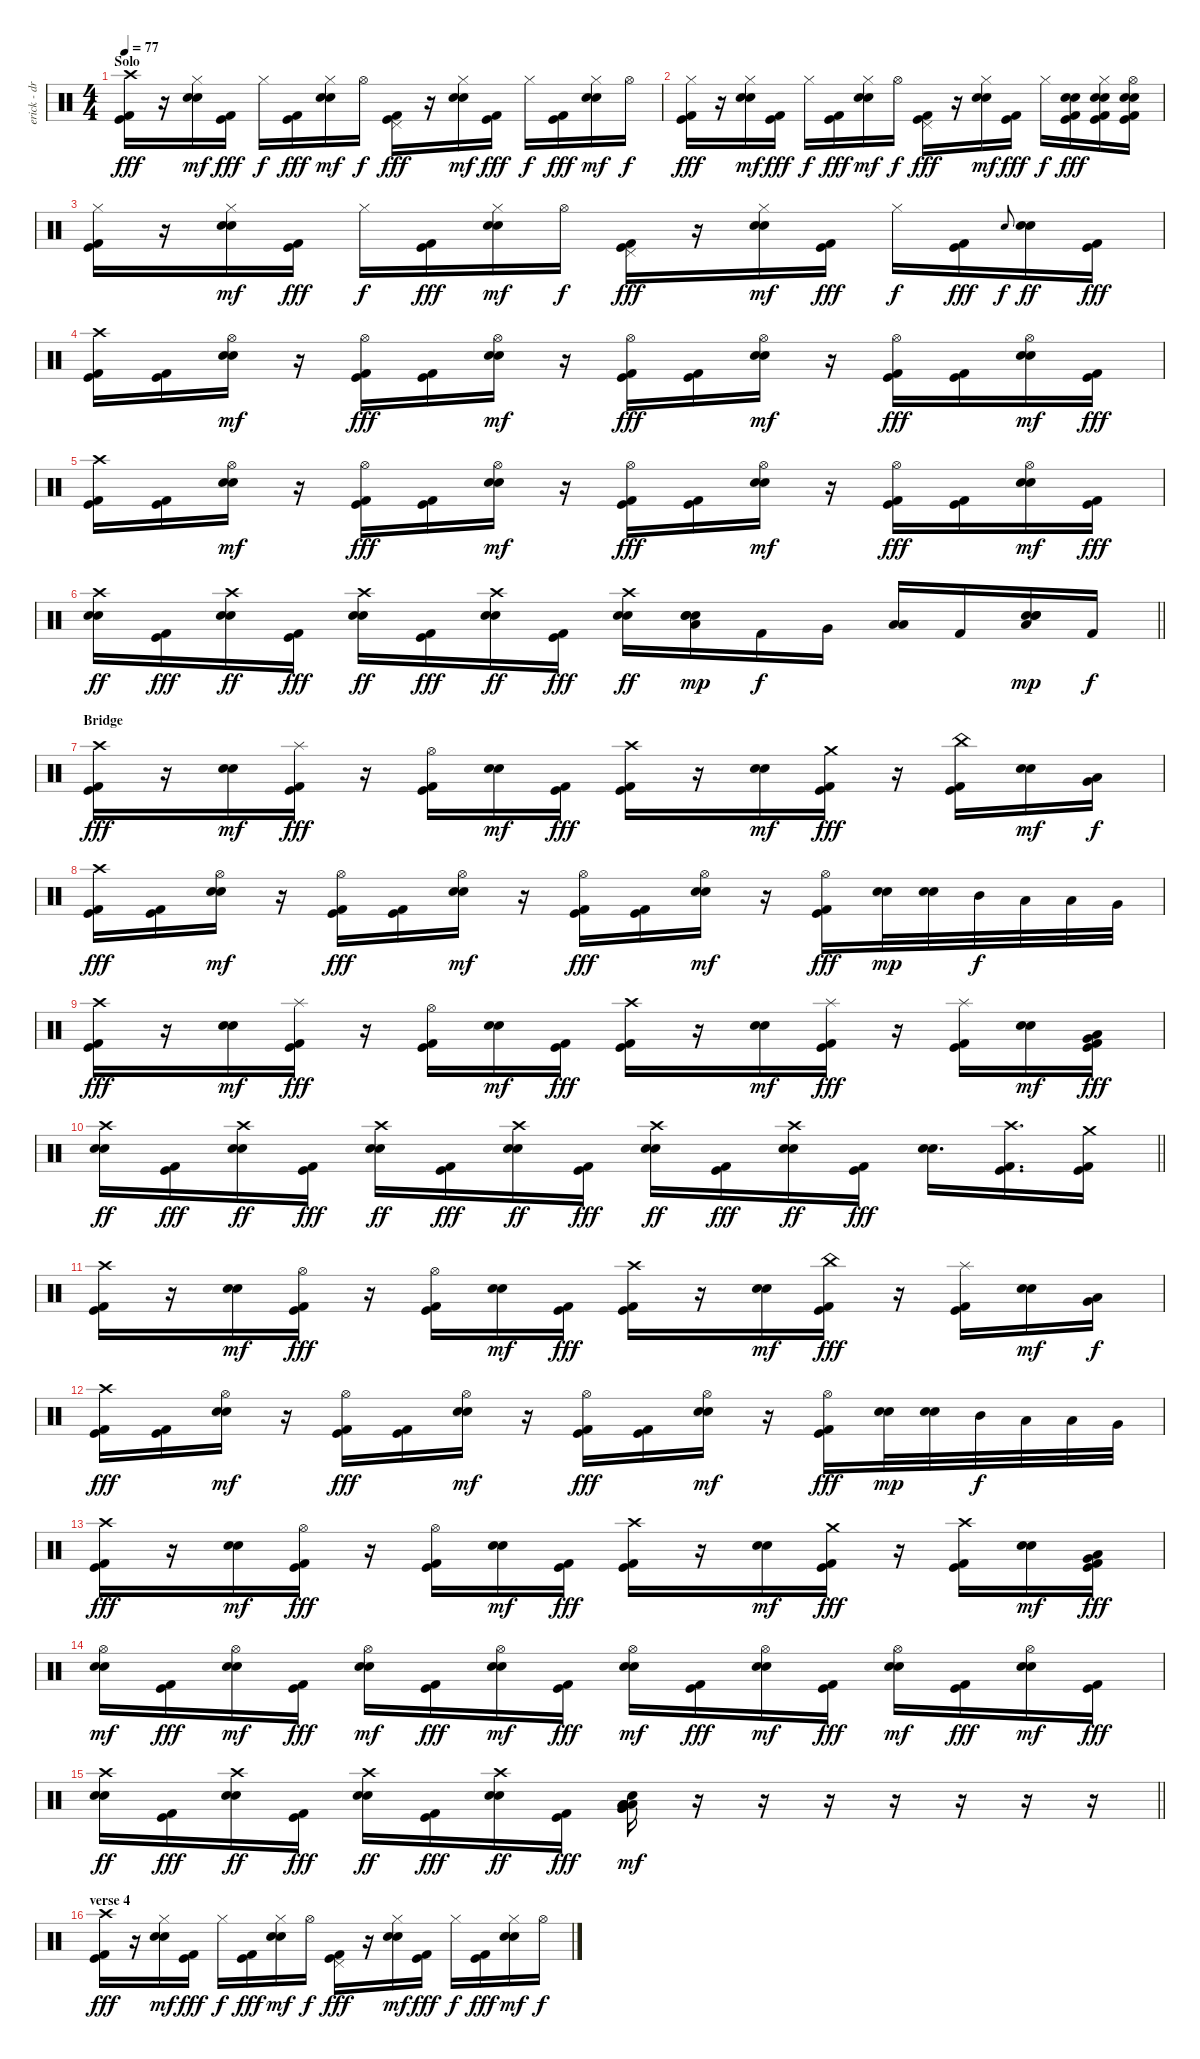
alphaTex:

\track ("erick - drum" "erick - dr") {instrument percussion}
\staff {score}
\articulation defaults
\ts (4 4)
\section ("" "Solo")
\tempo 77
\clef neutral
\ks c
("Crash high (hit)" "Kick (hit) 2" "Kick (hit)").16{dy fff} r.16 ("Hi-Hat (closed)" "Snare (hit) 2" "Electric Snare (hit)").16{dy mf} ("Kick (hit) 2" "Kick (hit)").16{dy fff} "Hi-Hat (closed)".16{dy f} ("Kick (hit) 2" "Kick (hit)").16{dy fff} ("Hi-Hat (closed)" "Snare (hit) 2" "Electric Snare (hit)").16{dy mf} "Hi-Hat (open)".16{dy f} ("Pedal Hi-Hat (hit)" "Kick (hit) 2" "Kick (hit)").16{dy fff} r.16 ("Hi-Hat (closed)" "Snare (hit) 2" "Electric Snare (hit)").16{dy mf} ("Kick (hit) 2" "Kick (hit)").16{dy fff} "Hi-Hat (closed)".16{dy f} ("Kick (hit) 2" "Kick (hit)").16{dy fff} ("Hi-Hat (closed)" "Snare (hit) 2" "Electric Snare (hit)").16{dy mf} "Hi-Hat (open)".16{dy f} |
("Hi-Hat (closed)" "Kick (hit) 2" "Kick (hit)").16{dy fff} r.16 ("Hi-Hat (closed)" "Snare (hit) 2" "Electric Snare (hit)").16{dy mf} ("Kick (hit) 2" "Kick (hit)").16{dy fff} "Hi-Hat (closed)".16{dy f} ("Kick (hit) 2" "Kick (hit)").16{dy fff} ("Hi-Hat (closed)" "Snare (hit) 2" "Electric Snare (hit)").16{dy mf} "Hi-Hat (open)".16{dy f} ("Pedal Hi-Hat (hit)" "Kick (hit) 2" "Kick (hit)").16{dy fff} r.16 ("Hi-Hat (closed)" "Snare (hit) 2" "Electric Snare (hit)").16{dy mf} ("Kick (hit) 2" "Kick (hit)").16{dy fff} "Hi-Hat (closed)".16{dy f} ("Snare (hit) 2" "Electric Snare (hit)" "Kick (hit) 2" "Kick (hit)").16{dy fff} ("Hi-Hat (closed)" "Snare (hit) 2" "Electric Snare (hit)" "Kick (hit) 2" "Kick (hit)").16 ("Hi-Hat (open)" "Snare (hit) 2" "Electric Snare (hit)" "Kick (hit) 2" "Kick (hit)").16 |
("Hi-Hat (closed)" "Kick (hit) 2" "Kick (hit)").16 r.16 ("Hi-Hat (closed)" "Snare (hit) 2" "Electric Snare (hit)").16{dy mf} ("Kick (hit) 2" "Kick (hit)").16{dy fff} "Hi-Hat (closed)".16{dy f} ("Kick (hit) 2" "Kick (hit)").16{dy fff} ("Hi-Hat (closed)" "Snare (hit) 2" "Electric Snare (hit)").16{dy mf} "Hi-Hat (open)".16{dy f} ("Pedal Hi-Hat (hit)" "Kick (hit) 2" "Kick (hit)").16{dy fff} r.16 ("Hi-Hat (closed)" "Snare (hit) 2" "Electric Snare (hit)").16{dy mf} ("Kick (hit) 2" "Kick (hit)").16{dy fff} "Hi-Hat (closed)".16{dy f} ("Kick (hit) 2" "Kick (hit)").16{dy fff} "Electric Snare (hit)"{h}.8{gr onbeat dy f} ("Snare (hit) 2" "Electric Snare (hit)").16{dy ff} ("Kick (hit) 2" "Kick (hit)").16{dy fff} |
("Crash high (hit)" "Kick (hit) 2" "Kick (hit)").16 ("Kick (hit) 2" "Kick (hit)").16 ("Hi-Hat (open)" "Snare (hit) 2" "Electric Snare (hit)").16{dy mf} r.16 ("Hi-Hat (open)" "Kick (hit) 2" "Kick (hit)").16{dy fff} ("Kick (hit) 2" "Kick (hit)").16 ("Hi-Hat (open)" "Snare (hit) 2" "Electric Snare (hit)").16{dy mf} r.16 ("Hi-Hat (open)" "Kick (hit) 2" "Kick (hit)").16{dy fff} ("Kick (hit) 2" "Kick (hit)").16 ("Hi-Hat (open)" "Snare (hit) 2" "Electric Snare (hit)").16{dy mf} r.16 ("Hi-Hat (open)" "Kick (hit) 2" "Kick (hit)").16{dy fff} ("Kick (hit) 2" "Kick (hit)").16 ("Hi-Hat (open)" "Snare (hit) 2" "Electric Snare (hit)").16{dy mf} ("Kick (hit) 2" "Kick (hit)").16{dy fff} |
("Crash high (hit)" "Kick (hit) 2" "Kick (hit)").16 ("Kick (hit) 2" "Kick (hit)").16 ("Hi-Hat (open)" "Snare (hit) 2" "Electric Snare (hit)").16{dy mf} r.16 ("Hi-Hat (open)" "Kick (hit) 2" "Kick (hit)").16{dy fff} ("Kick (hit) 2" "Kick (hit)").16 ("Hi-Hat (open)" "Snare (hit) 2" "Electric Snare (hit)").16{dy mf} r.16 ("Hi-Hat (open)" "Kick (hit) 2" "Kick (hit)").16{dy fff} ("Kick (hit) 2" "Kick (hit)").16 ("Hi-Hat (open)" "Snare (hit) 2" "Electric Snare (hit)").16{dy mf} r.16 ("Hi-Hat (open)" "Kick (hit) 2" "Kick (hit)").16{dy fff} ("Kick (hit) 2" "Kick (hit)").16 ("Hi-Hat (open)" "Snare (hit) 2" "Electric Snare (hit)").16{dy mf} ("Kick (hit) 2" "Kick (hit)").16{dy fff} |
\barLineRight lightlight
("Crash high (hit)" "Snare (hit) 2" "Electric Snare (hit)").16{dy ff} ("Kick (hit) 2" "Kick (hit)").16{dy fff} ("Crash high (hit)" "Snare (hit) 2" "Electric Snare (hit)").16{dy ff} ("Kick (hit) 2" "Kick (hit)").16{dy fff} ("Crash high (hit)" "Snare (hit) 2" "Electric Snare (hit)").16{dy ff} ("Kick (hit) 2" "Kick (hit)").16{dy fff} ("Crash high (hit)" "Snare (hit) 2" "Electric Snare (hit)").16{dy ff} ("Kick (hit) 2" "Kick (hit)").16{dy fff} ("Crash high (hit)" "Snare (hit) 2" "Electric Snare (hit)").16{dy ff} ("Snare (hit) 2" "Electric Snare (hit)" "Electric Snare (hit)" "Low Tom (hit)").16{dy mp} "Kick (hit) 2".16{dy f} "Very Low Tom (hit)".16 ("Low Tom (hit)" "Low Floor Tom (hit)").16{bu 240} "Kick (hit) 2".16 ("Snare (hit) 2" "Electric Snare (hit)" "Electric Snare (hit)" "Low Floor Tom (hit)").16{dy mp} "Kick (hit) 2".16{dy f} |
\section ("" "Bridge")
("Crash high (hit)" "Kick (hit) 2" "Kick (hit)").16{dy fff} r.16 ("Snare (hit) 2" "Electric Snare (hit)").16{dy mf} ("Splash (hit)" "Kick (hit) 2" "Kick (hit)").16{dy fff} r.16 ("Hi-Hat (open)" "Kick (hit) 2" "Kick (hit)").16 ("Snare (hit) 2" "Electric Snare (hit)").16{dy mf} ("Kick (hit) 2" "Kick (hit)").16{dy fff} ("Crash high (hit)" "Kick (hit) 2" "Kick (hit)").16 r.16 ("Snare (hit) 2" "Electric Snare (hit)").16{dy mf} ("Crash medium (hit)" "Kick (hit) 2" "Kick (hit)").16{dy fff} r.16 ("China (hit)" "Kick (hit) 2" "Kick (hit)").16 ("Snare (hit) 2" "Electric Snare (hit)").16{dy mf} ("Low Tom (hit)" "Very Low Tom (hit)").16{dy f} |
("Crash high (hit)" "Kick (hit) 2" "Kick (hit)").16{dy fff} ("Kick (hit) 2" "Kick (hit)").16 ("Hi-Hat (open)" "Snare (hit) 2" "Electric Snare (hit)").16{dy mf} r.16 ("Hi-Hat (open)" "Kick (hit) 2" "Kick (hit)").16{dy fff} ("Kick (hit) 2" "Kick (hit)").16 ("Hi-Hat (open)" "Snare (hit) 2" "Electric Snare (hit)").16{dy mf} r.16 ("Hi-Hat (open)" "Kick (hit) 2" "Kick (hit)").16{dy fff} ("Kick (hit) 2" "Kick (hit)").16 ("Hi-Hat (open)" "Snare (hit) 2" "Electric Snare (hit)").16{dy mf} r.16 ("Hi-Hat (open)" "Kick (hit) 2" "Kick (hit)").16{dy fff} ("Snare (hit) 2" "Electric Snare (hit)").32{dy mp} ("Snare (hit) 2" "Electric Snare (hit)").32 "Mid Tom (hit)".32{dy f} "Low Tom (hit)".32 "Low Tom (hit)".32 "Very Low Tom (hit)".32 |
("Crash high (hit)" "Kick (hit) 2" "Kick (hit)").16{dy fff} r.16 ("Snare (hit) 2" "Electric Snare (hit)").16{dy mf} ("Splash (hit)" "Kick (hit) 2" "Kick (hit)").16{dy fff} r.16 ("Hi-Hat (open)" "Kick (hit) 2" "Kick (hit)").16 ("Snare (hit) 2" "Electric Snare (hit)").16{dy mf} ("Kick (hit) 2" "Kick (hit)").16{dy fff} ("Crash high (hit)" "Kick (hit) 2" "Kick (hit)").16 r.16 ("Snare (hit) 2" "Electric Snare (hit)").16{dy mf} ("Splash (hit)" "Kick (hit) 2" "Kick (hit)").16{dy fff} r.16 ("Splash (hit)" "Kick (hit) 2" "Kick (hit)").16 ("Snare (hit) 2" "Electric Snare (hit)").16{dy mf} ("Low Tom (hit)" "Very Low Tom (hit)" "Kick (hit) 2" "Kick (hit)").16{dy fff} |
\barLineRight lightlight
("Crash high (hit)" "Snare (hit) 2" "Electric Snare (hit)").16{dy ff} ("Kick (hit) 2" "Kick (hit)").16{dy fff} ("Crash high (hit)" "Snare (hit) 2" "Electric Snare (hit)").16{dy ff} ("Kick (hit) 2" "Kick (hit)").16{dy fff} ("Crash high (hit)" "Snare (hit) 2" "Electric Snare (hit)").16{dy ff} ("Kick (hit) 2" "Kick (hit)").16{dy fff} ("Crash high (hit)" "Snare (hit) 2" "Electric Snare (hit)").16{dy ff} ("Kick (hit) 2" "Kick (hit)").16{dy fff} ("Crash high (hit)" "Snare (hit) 2" "Electric Snare (hit)").16{dy ff} ("Kick (hit) 2" "Kick (hit)").16{dy fff} ("Crash high (hit)" "Snare (hit) 2" "Electric Snare (hit)").16{dy ff} ("Kick (hit) 2" "Kick (hit)").16{dy fff} ("Electric Snare (hit)" "Electric Snare (hit)").16{d bd 60} ("Crash high (hit)" "Kick (hit) 2" "Kick (hit)").16{d} ("Crash medium (hit)" "Kick (hit) 2" "Kick (hit)").16 |
\section ("" "")
("Crash high (hit)" "Kick (hit) 2" "Kick (hit)").16 r.16 ("Snare (hit) 2" "Electric Snare (hit)").16{dy mf} ("Hi-Hat (open)" "Kick (hit) 2" "Kick (hit)").16{dy fff} r.16 ("Hi-Hat (open)" "Kick (hit) 2" "Kick (hit)").16 ("Snare (hit) 2" "Electric Snare (hit)").16{dy mf} ("Kick (hit) 2" "Kick (hit)").16{dy fff} ("Crash high (hit)" "Kick (hit) 2" "Kick (hit)").16 r.16 ("Snare (hit) 2" "Electric Snare (hit)").16{dy mf} ("China (hit)" "Kick (hit) 2" "Kick (hit)").16{dy fff} r.16 ("Splash (hit)" "Kick (hit) 2" "Kick (hit)").16 ("Snare (hit) 2" "Electric Snare (hit)").16{dy mf} ("Low Tom (hit)" "Very Low Tom (hit)").16{dy f} |
("Crash high (hit)" "Kick (hit) 2" "Kick (hit)").16{dy fff} ("Kick (hit) 2" "Kick (hit)").16 ("Hi-Hat (open)" "Snare (hit) 2" "Electric Snare (hit)").16{dy mf} r.16 ("Hi-Hat (open)" "Kick (hit) 2" "Kick (hit)").16{dy fff} ("Kick (hit) 2" "Kick (hit)").16 ("Hi-Hat (open)" "Snare (hit) 2" "Electric Snare (hit)").16{dy mf} r.16 ("Hi-Hat (open)" "Kick (hit) 2" "Kick (hit)").16{dy fff} ("Kick (hit) 2" "Kick (hit)").16 ("Hi-Hat (open)" "Snare (hit) 2" "Electric Snare (hit)").16{dy mf} r.16 ("Hi-Hat (open)" "Kick (hit) 2" "Kick (hit)").16{dy fff} ("Snare (hit) 2" "Electric Snare (hit)").32{dy mp} ("Snare (hit) 2" "Electric Snare (hit)").32 "Mid Tom (hit)".32{dy f} "Low Tom (hit)".32 "Low Tom (hit)".32 "Very Low Tom (hit)".32 |
("Crash high (hit)" "Kick (hit) 2" "Kick (hit)").16{dy fff} r.16 ("Snare (hit) 2" "Electric Snare (hit)").16{dy mf} ("Hi-Hat (open)" "Kick (hit) 2" "Kick (hit)").16{dy fff} r.16 ("Hi-Hat (open)" "Kick (hit) 2" "Kick (hit)").16 ("Snare (hit) 2" "Electric Snare (hit)").16{dy mf} ("Kick (hit) 2" "Kick (hit)").16{dy fff} ("Crash high (hit)" "Kick (hit) 2" "Kick (hit)").16 r.16 ("Snare (hit) 2" "Electric Snare (hit)").16{dy mf} ("Crash medium (hit)" "Kick (hit) 2" "Kick (hit)").16{dy fff} r.16 ("Crash high (hit)" "Kick (hit) 2" "Kick (hit)").16 ("Snare (hit) 2" "Electric Snare (hit)").16{dy mf} ("Low Tom (hit)" "Very Low Tom (hit)" "Kick (hit) 2" "Kick (hit)").16{dy fff} |
("Hi-Hat (open)" "Snare (hit) 2" "Electric Snare (hit)").16{dy mf} ("Kick (hit) 2" "Kick (hit)").16{dy fff} ("Hi-Hat (open)" "Snare (hit) 2" "Electric Snare (hit)").16{dy mf} ("Kick (hit) 2" "Kick (hit)").16{dy fff} ("Hi-Hat (open)" "Snare (hit) 2" "Electric Snare (hit)").16{dy mf} ("Kick (hit) 2" "Kick (hit)").16{dy fff} ("Hi-Hat (open)" "Snare (hit) 2" "Electric Snare (hit)").16{dy mf} ("Kick (hit) 2" "Kick (hit)").16{dy fff} ("Hi-Hat (open)" "Snare (hit) 2" "Electric Snare (hit)").16{dy mf} ("Kick (hit) 2" "Kick (hit)").16{dy fff} ("Hi-Hat (open)" "Snare (hit) 2" "Electric Snare (hit)").16{dy mf} ("Kick (hit) 2" "Kick (hit)").16{dy fff} ("Hi-Hat (open)" "Snare (hit) 2" "Electric Snare (hit)").16{dy mf} ("Kick (hit) 2" "Kick (hit)").16{dy fff} ("Hi-Hat (open)" "Snare (hit) 2" "Electric Snare (hit)").16{dy mf} ("Kick (hit) 2" "Kick (hit)").16{dy fff} |
\barLineRight lightlight
("Crash high (hit)" "Snare (hit) 2" "Electric Snare (hit)").16{dy ff} ("Kick (hit) 2" "Kick (hit)").16{dy fff} ("Crash high (hit)" "Snare (hit) 2" "Electric Snare (hit)").16{dy ff} ("Kick (hit) 2" "Kick (hit)").16{dy fff} ("Crash high (hit)" "Snare (hit) 2" "Electric Snare (hit)").16{dy ff} ("Kick (hit) 2" "Kick (hit)").16{dy fff} ("Crash high (hit)" "Snare (hit) 2" "Electric Snare (hit)").16{dy ff} ("Kick (hit) 2" "Kick (hit)").16{dy fff} ("Electric Snare (hit)" "Low Tom (hit)" "Low Floor Tom (hit)" "Very Low Tom (hit)" "Low Floor Tom (hit)" "Very Low Tom (hit)").16{dy mf} r.16 r.16 r.16 r.16 r.16 r.16 r.16 |
\section ("" "verse 4")
("Crash high (hit)" "Kick (hit) 2" "Kick (hit)").16{dy fff} r.16 ("Hi-Hat (closed)" "Snare (hit) 2" "Electric Snare (hit)").16{dy mf} ("Kick (hit) 2" "Kick (hit)").16{dy fff} "Hi-Hat (closed)".16{dy f} ("Kick (hit) 2" "Kick (hit)").16{dy fff} ("Hi-Hat (closed)" "Snare (hit) 2" "Electric Snare (hit)").16{dy mf} "Hi-Hat (open)".16{dy f} ("Pedal Hi-Hat (hit)" "Kick (hit) 2" "Kick (hit)").16{dy fff} r.16 ("Hi-Hat (closed)" "Snare (hit) 2" "Electric Snare (hit)").16{dy mf} ("Kick (hit) 2" "Kick (hit)").16{dy fff} "Hi-Hat (closed)".16{dy f} ("Kick (hit) 2" "Kick (hit)").16{dy fff} ("Hi-Hat (closed)" "Snare (hit) 2" "Electric Snare (hit)").16{dy mf} "Hi-Hat (open)".16{dy f}
